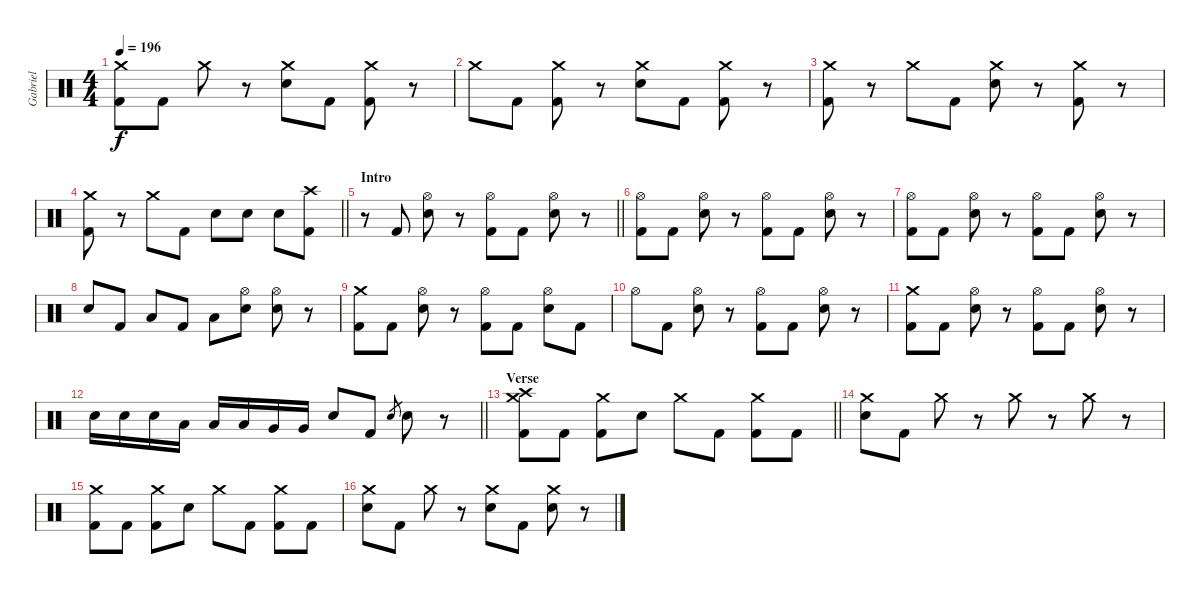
\track ("Gabriel" "Gabriel") {instrument percussion}
\staff {score}
\articulation defaults
\ts (4 4)
\tempo 196
\clef neutral
\ks c
("Crash medium (hit)" "Kick (hit) 2").8{dy f} "Kick (hit) 2".8 "Crash medium (hit)".8 r.8 ("Crash medium (hit)" "Electric Snare (hit)").8 "Kick (hit) 2".8 ("Crash medium (hit)" "Kick (hit) 2").8 r.8 |
"Crash medium (hit)".8 "Kick (hit) 2".8 ("Crash medium (hit)" "Kick (hit) 2").8 r.8 ("Crash medium (hit)" "Electric Snare (hit)").8 "Kick (hit) 2".8 ("Crash medium (hit)" "Kick (hit) 2").8 r.8 |
("Crash medium (hit)" "Kick (hit) 2").8 r.8 "Crash medium (hit)".8 "Kick (hit) 2".8 ("Crash medium (hit)" "Electric Snare (hit)").8 r.8 ("Crash medium (hit)" "Kick (hit) 2").8 r.8 |
\barLineRight lightlight
("Crash medium (hit)" "Kick (hit) 2").8 r.8 "Crash medium (hit)".8 "Kick (hit) 2".8 "Electric Snare (hit)".8 "Electric Snare (hit)".8 "Electric Snare (hit)".8 ("Crash high (hit)" "Kick (hit) 2").8 |
\section ("" "Intro")
\barLineRight lightlight
r.8 "Kick (hit) 2".8 ("Hi-Hat (open)" "Electric Snare (hit)").8 r.8 ("Hi-Hat (open)" "Kick (hit) 2").8 "Kick (hit) 2".8 ("Hi-Hat (open)" "Electric Snare (hit)").8 r.8 |
("Hi-Hat (open)" "Kick (hit) 2").8 "Kick (hit) 2".8 ("Hi-Hat (open)" "Electric Snare (hit)").8 r.8 ("Hi-Hat (open)" "Kick (hit) 2").8 "Kick (hit) 2".8 ("Hi-Hat (open)" "Electric Snare (hit)").8 r.8 |
("Hi-Hat (open)" "Kick (hit) 2").8 "Kick (hit) 2".8 ("Hi-Hat (open)" "Electric Snare (hit)").8 r.8 ("Hi-Hat (open)" "Kick (hit) 2").8 "Kick (hit) 2".8 ("Hi-Hat (open)" "Electric Snare (hit)").8 r.8 |
"Electric Snare (hit)".8 "Kick (hit) 2".8 "Low Tom (hit)".8 "Kick (hit) 2".8 "Low Tom (hit)".8 ("Hi-Hat (open)" "Electric Snare (hit)").8 ("Hi-Hat (open)" "Electric Snare (hit)").8 r.8 |
("Crash medium (hit)" "Kick (hit) 2").8 "Kick (hit) 2".8 ("Hi-Hat (open)" "Electric Snare (hit)").8 r.8 ("Hi-Hat (open)" "Kick (hit) 2").8 "Kick (hit) 2".8 ("Hi-Hat (open)" "Electric Snare (hit)").8 "Kick (hit) 2".8 |
"Hi-Hat (open)".8 "Kick (hit) 2".8 ("Hi-Hat (open)" "Electric Snare (hit)").8 r.8 ("Hi-Hat (open)" "Kick (hit) 2").8 "Kick (hit) 2".8 ("Hi-Hat (open)" "Electric Snare (hit)").8 r.8 |
("Crash medium (hit)" "Kick (hit) 2").8 "Kick (hit) 2".8 ("Hi-Hat (open)" "Electric Snare (hit)").8 r.8 ("Hi-Hat (open)" "Kick (hit) 2").8 "Kick (hit) 2".8 ("Hi-Hat (open)" "Electric Snare (hit)").8 r.8 |
\barLineRight lightlight "Electric Snare (hit)".16 "Electric Snare (hit)".16 "Electric Snare (hit)".16 "Low Tom (hit)".16 "Low Tom (hit)".16 "Low Tom (hit)".16 "Very Low Tom (hit)".16 "Very Low Tom (hit)".16 "Electric Snare (hit)".8 "Kick (hit) 2".8 "Electric Snare (hit)".8{gr} "Electric Snare (hit)".8
r.8 |
\section ("" "Verse")
\barLineRight lightlight
("Crash medium (hit)" "Crash high (hit)" "Kick (hit) 2").8 "Kick (hit) 2".8 ("Crash medium (hit)" "Kick (hit) 2").8 "Electric Snare (hit)".8 "Crash medium (hit)".8 "Kick (hit) 2".8 ("Crash medium (hit)" "Kick (hit) 2").8 "Kick (hit) 2".8 |
("Crash medium (hit)" "Electric Snare (hit)").8 "Kick (hit) 2".8 "Crash medium (hit)".8 r.8 "Crash medium (hit)".8 r.8 "Crash medium (hit)".8 r.8 |
("Crash medium (hit)" "Kick (hit) 2").8 "Kick (hit) 2".8 ("Crash medium (hit)" "Kick (hit) 2").8 "Electric Snare (hit)".8 "Crash medium (hit)".8 "Kick (hit) 2".8 ("Crash medium (hit)" "Kick (hit) 2").8 "Kick (hit) 2".8 |
("Crash medium (hit)" "Electric Snare (hit)").8 "Kick (hit) 2".8 "Crash medium (hit)".8 r.8 ("Crash medium (hit)" "Electric Snare (hit)").8 "Kick (hit) 2".8 ("Crash medium (hit)" "Electric Snare (hit)").8 r.8
